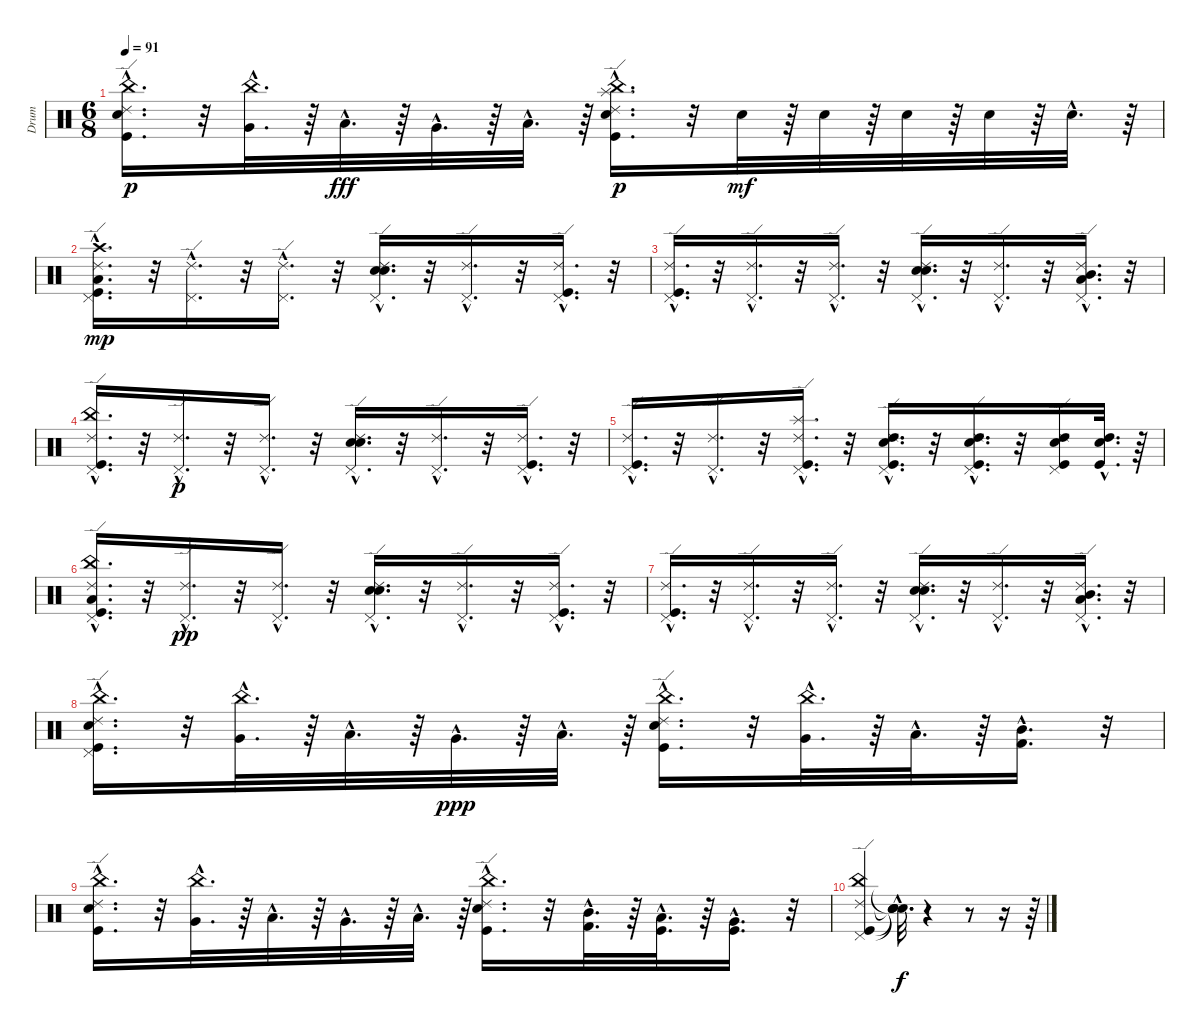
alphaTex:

\track ("Drum" "Drum") {instrument percussion}
\staff {score}
\articulation defaults
\ts (6 8)
\tempo 91
\clef neutral
\ks c
("Kick (hit)"{hac} "Ride (edge) 2"{hac} "Snare (hit) 2"{hac} "China (hit)"{hac}).16{d dy p} r.32 ("Very Low Tom (hit)"{hac} "China (hit)"{hac}).32{d} r.64 "Low Floor Tom (hit)"{hac}.32{d dy fff} r.64 "Very Low Tom (hit)"{hac}.32{d} r.64 "Low Floor Tom (hit)"{hac}.32{d} r.64 ("Kick (hit)"{hac} "Snare (hit) 2"{hac} "Ride (edge) 2"{hac} "China (hit)"{hac} "Splash (hit)"{hac}).16{d dy p} r.32 "Snare (hit) 2".32{dy mf} r.64 "Snare (hit) 2".32 r.64 "Snare (hit) 2".32 r.64 "Snare (hit) 2".32 r.64 "Snare (hit) 2"{hac}.32{d} r.64 |
("Low Floor Tom (hit)"{hac} "Kick (hit)"{hac} "Pedal Hi-Hat (hit)"{hac} "Ride (edge) 2"{hac} "Crash high (hit)"{hac}).16{d dy mp} r.32 ("Pedal Hi-Hat (hit)"{hac} "Ride (edge) 2"{hac}).16{d} r.32 ("Pedal Hi-Hat (hit)"{hac} "Ride (edge) 2"{hac}).16{d} r.32 ("Pedal Hi-Hat (hit)"{hac} "Snare (hit) 2"{hac} "Ride (edge) 2"{hac} "Hand Clap (hit)"{hac}).16{d} r.32 ("Pedal Hi-Hat (hit)"{hac} "Ride (edge) 2"{hac}).16{d} r.32 ("Kick (hit)"{hac} "Pedal Hi-Hat (hit)"{hac} "Ride (edge) 2"{hac}).16{d} r.32 |
("Ride (edge) 2"{hac} "Pedal Hi-Hat (hit)"{hac} "Kick (hit)"{hac}).16{d} r.32 ("Ride (edge) 2"{hac} "Pedal Hi-Hat (hit)"{hac}).16{d} r.32 ("Ride (edge) 2"{hac} "Pedal Hi-Hat (hit)"{hac}).16{d} r.32 ("Hand Clap (hit)"{hac} "Ride (edge) 2"{hac} "Snare (hit) 2"{hac} "Pedal Hi-Hat (hit)"{hac}).16{d} r.32 ("Ride (edge) 2"{hac} "Pedal Hi-Hat (hit)"{hac}).16{d} r.32 ("Low Floor Tom (hit)"{hac} "Mid Tom (hit)"{hac} "Ride (edge) 2"{hac} "Pedal Hi-Hat (hit)"{hac}).16{d} r.32 |
("China (hit)"{hac} "Ride (edge) 2"{hac} "Pedal Hi-Hat (hit)"{hac} "Kick (hit)"{hac}).16{d} r.32 ("Ride (edge) 2"{hac} "Pedal Hi-Hat (hit)"{hac}).16{d dy p} r.32 ("Ride (edge) 2"{hac} "Pedal Hi-Hat (hit)"{hac}).16{d} r.32 ("Hand Clap (hit)"{hac} "Ride (edge) 2"{hac} "Snare (hit) 2"{hac} "Pedal Hi-Hat (hit)"{hac}).16{d} r.32 ("Ride (edge) 2"{hac} "Pedal Hi-Hat (hit)"{hac}).16{d} r.32 ("Kick (hit)"{hac} "Ride (edge) 2"{hac} "Pedal Hi-Hat (hit)"{hac}).16{d} r.32 |
("Ride (edge) 2"{hac} "Pedal Hi-Hat (hit)"{hac} "Kick (hit)"{hac}).16{d} r.32 ("Ride (edge) 2"{hac} "Pedal Hi-Hat (hit)"{hac}).16{d} r.32 ("Pedal Hi-Hat (hit)"{hac} "Splash (hit)"{hac} "Ride (edge) 2"{hac} "Kick (hit)"{hac}).16{d} r.32 ("High Tom (hit)"{hac} "Pedal Hi-Hat (hit)"{hac} "Kick (hit)"{hac} "Snare (hit) 2"{hac} "Ride (edge) 2"{hac}).16{d} r.32 ("Snare (hit) 2"{hac} "Ride (edge) 2"{hac} "High Tom (hit)"{hac} "Pedal Hi-Hat (hit)"{hac} "Kick (hit)"{hac}).16{d} r.32 ("High Tom (hit)" "Snare (hit) 2" "Pedal Hi-Hat (hit)" "Kick (hit)" "Ride (edge) 2").16 ("Snare (hit) 2"{hac} "Kick (hit)"{hac} "High Tom (hit)"{hac}).32{d} r.64 |
("Low Floor Tom (hit)"{hac} "Kick (hit)"{hac} "Pedal Hi-Hat (hit)"{hac} "China (hit)"{hac} "Ride (edge) 2"{hac}).16{d} r.32 ("Pedal Hi-Hat (hit)"{hac} "Ride (edge) 2"{hac}).16{d dy pp} r.32 ("Ride (edge) 2"{hac} "Pedal Hi-Hat (hit)"{hac}).16{d} r.32 ("Snare (hit) 2"{hac} "Ride (edge) 2"{hac} "Hand Clap (hit)"{hac} "Pedal Hi-Hat (hit)"{hac}).16{d} r.32 ("Ride (edge) 2"{hac} "Pedal Hi-Hat (hit)"{hac}).16{d} r.32 ("Kick (hit)"{hac} "Pedal Hi-Hat (hit)"{hac} "Ride (edge) 2"{hac}).16{d} r.32 |
("Kick (hit)"{hac} "Pedal Hi-Hat (hit)"{hac} "Ride (edge) 2"{hac}).16{d} r.32 ("Pedal Hi-Hat (hit)"{hac} "Ride (edge) 2"{hac}).16{d} r.32 ("Pedal Hi-Hat (hit)"{hac} "Ride (edge) 2"{hac}).16{d} r.32 ("Pedal Hi-Hat (hit)"{hac} "Snare (hit) 2"{hac} "Ride (edge) 2"{hac} "Hand Clap (hit)"{hac}).16{d} r.32 ("Pedal Hi-Hat (hit)"{hac} "Ride (edge) 2"{hac}).16{d} r.32 ("Pedal Hi-Hat (hit)"{hac} "Ride (edge) 2"{hac} "Mid Tom (hit)"{hac} "Low Floor Tom (hit)"{hac}).16{d} r.32 |
("Snare (hit) 2"{hac} "Kick (hit)"{hac} "Ride (edge) 2"{hac} "Pedal Hi-Hat (hit)"{hac} "China (hit)"{hac}).16{d} r.32 ("Very Low Tom (hit)"{hac} "China (hit)"{hac}).32{d} r.64 "Low Floor Tom (hit)"{hac}.32{d} r.64 "Very Low Tom (hit)"{hac}.32{d dy ppp} r.64 "Low Floor Tom (hit)"{hac}.32{d} r.64 ("Snare (hit) 2"{hac} "Ride (edge) 2"{hac} "Kick (hit)"{hac} "China (hit)"{hac}).16{d} r.32 ("Very Low Tom (hit)"{hac} "China (hit)"{hac}).32{d} r.64 "Low Floor Tom (hit)"{hac}.32{d} r.64 ("Kick (hit) 2"{hac} "Mid Tom (hit)"{hac}).16{d} r.32 |
("Snare (hit) 2"{hac} "Kick (hit)"{hac} "Ride (edge) 2"{hac} "China (hit)"{hac}).16{d} r.32 ("Very Low Tom (hit)"{hac} "China (hit)"{hac}).32{d} r.64 "Low Floor Tom (hit)"{hac}.32{d} r.64 "Very Low Tom (hit)"{hac}.32{d} r.64 "Low Floor Tom (hit)"{hac}.32{d} r.64 ("Ride (edge) 2"{hac} "Snare (hit) 2"{hac} "Kick (hit)"{hac} "China (hit)"{hac}).16{d} r.32 ("Kick (hit) 2"{hac} "Mid Tom (hit)"{hac}).32{d} r.64 ("Low Tom (hit)"{hac} "Kick (hit)"{hac}).32{d} r.64 ("Very Low Tom (hit)"{hac} "Kick (hit)"{hac}).16{d} r.32 |
("Ride (edge) 2" "Kick (hit)" "Pedal Hi-Hat (hit)" "China (hit)").4 ("Snare (hit)"{hac t} "Snare (hit)"{hac t} "Snare (hit)"{hac t} "Snare (hit)"{hac t}).32{d dy f} r.4 r.8 r.16 r.64
